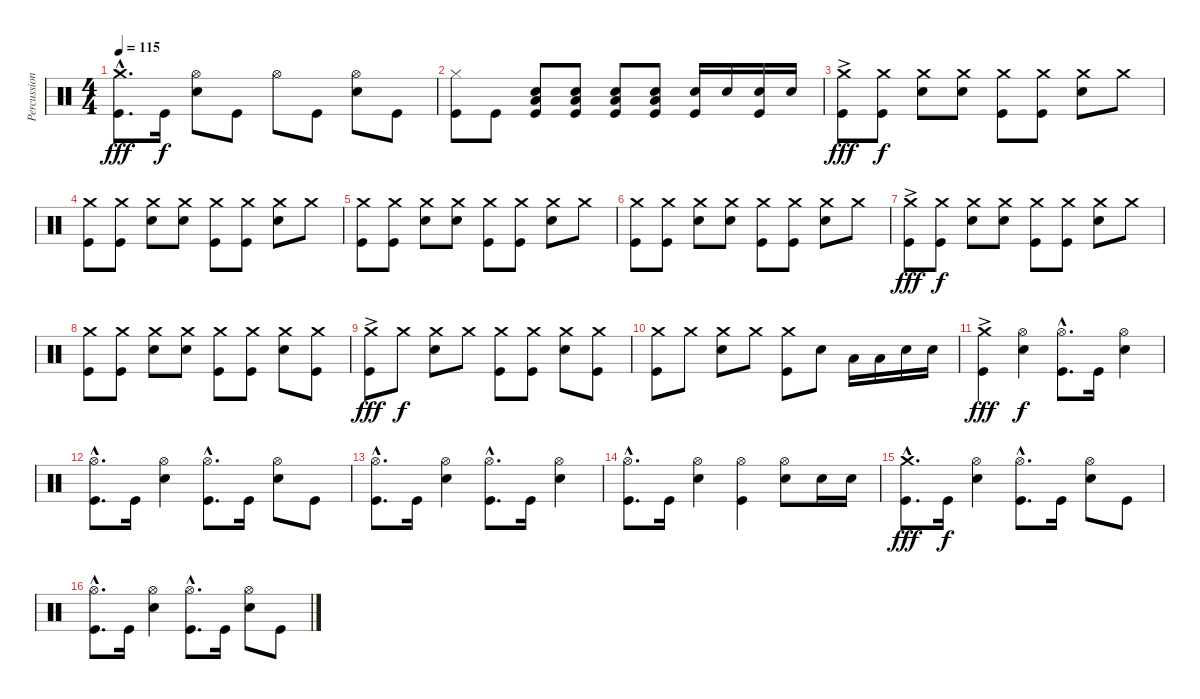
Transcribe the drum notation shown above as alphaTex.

\track ("Percussion" "Percussion") {instrument percussion}
\staff {score}
\articulation defaults
\ts (4 4)
\tempo 115
\clef neutral
\ks c
("Crash medium (hit)"{hac} "Kick (hit)"{hac}).8{d dy fff} "Kick (hit)".16{dy f} ("Hi-Hat (open)" "Snare (hit) 2").8 "Kick (hit)".8 "Hi-Hat (open)".8 "Kick (hit)".8 ("Hi-Hat (open)" "Snare (hit) 2").8 "Kick (hit)".8 |
("Hi-Hat (closed)" "Kick (hit)").8 "Kick (hit)".8 ("Snare (hit) 2" "Low Floor Tom (hit)" "Kick (hit)").8{volume 16} ("Snare (hit) 2" "Low Floor Tom (hit)" "Kick (hit)").8 ("Snare (hit) 2" "Low Floor Tom (hit)" "Kick (hit)").8 ("Snare (hit) 2" "Low Floor Tom (hit)" "Kick (hit)").8 ("Snare (hit) 2" "Kick (hit)").16 "Snare (hit) 2".16 ("Snare (hit) 2" "Kick (hit)").16 "Snare (hit) 2".16 |
("Crash medium (hit)"{ac} "Kick (hit)").8{dy fff volume 13} ("Crash medium (hit)" "Kick (hit)").8{dy f} ("Crash medium (hit)" "Snare (hit) 2").8 ("Crash medium (hit)" "Snare (hit) 2").8 ("Crash medium (hit)" "Kick (hit)").8 ("Crash medium (hit)" "Kick (hit)").8 ("Crash medium (hit)" "Snare (hit) 2").8 "Crash medium (hit)".8 |
("Crash medium (hit)" "Kick (hit)").8 ("Crash medium (hit)" "Kick (hit)").8 ("Crash medium (hit)" "Snare (hit) 2").8 ("Crash medium (hit)" "Snare (hit) 2").8 ("Crash medium (hit)" "Kick (hit)").8 ("Crash medium (hit)" "Kick (hit)").8 ("Crash medium (hit)" "Snare (hit) 2").8 "Crash medium (hit)".8 |
("Crash medium (hit)" "Kick (hit)").8 ("Crash medium (hit)" "Kick (hit)").8 ("Crash medium (hit)" "Snare (hit) 2").8 ("Crash medium (hit)" "Snare (hit) 2").8 ("Crash medium (hit)" "Kick (hit)").8 ("Crash medium (hit)" "Kick (hit)").8 ("Crash medium (hit)" "Snare (hit) 2").8 "Crash medium (hit)".8 |
("Crash medium (hit)" "Kick (hit)").8 ("Crash medium (hit)" "Kick (hit)").8 ("Crash medium (hit)" "Snare (hit) 2").8 ("Crash medium (hit)" "Snare (hit) 2").8 ("Crash medium (hit)" "Kick (hit)").8 ("Crash medium (hit)" "Kick (hit)").8 ("Crash medium (hit)" "Snare (hit) 2").8 "Crash medium (hit)".8 |
("Crash medium (hit)"{ac} "Kick (hit)").8{dy fff} ("Crash medium (hit)" "Kick (hit)").8{dy f} ("Crash medium (hit)" "Snare (hit) 2").8 ("Crash medium (hit)" "Snare (hit) 2").8 ("Crash medium (hit)" "Kick (hit)").8 ("Crash medium (hit)" "Kick (hit)").8 ("Crash medium (hit)" "Snare (hit) 2").8 "Crash medium (hit)".8 |
("Crash medium (hit)" "Kick (hit)").8 ("Crash medium (hit)" "Kick (hit)").8 ("Crash medium (hit)" "Snare (hit) 2").8 ("Crash medium (hit)" "Snare (hit) 2").8 ("Crash medium (hit)" "Kick (hit)").8 ("Crash medium (hit)" "Kick (hit)").8 ("Crash medium (hit)" "Snare (hit) 2").8 ("Crash medium (hit)" "Kick (hit)").8 |
("Crash medium (hit)"{ac} "Kick (hit)").8{dy fff} "Crash medium (hit)".8{dy f} ("Crash medium (hit)" "Snare (hit) 2").8 "Crash medium (hit)".8 ("Crash medium (hit)" "Kick (hit)").8 ("Crash medium (hit)" "Kick (hit)").8 ("Crash medium (hit)" "Snare (hit) 2").8 ("Crash medium (hit)" "Kick (hit)").8 |
("Crash medium (hit)" "Kick (hit)").8 "Crash medium (hit)".8 ("Crash medium (hit)" "Snare (hit) 2").8 "Crash medium (hit)".8 ("Crash medium (hit)" "Kick (hit)").8 "Snare (hit) 2".8 "Low Tom (hit)".16 "Low Tom (hit)".16 "Snare (hit) 2".16 "Snare (hit) 2".16 |
("Crash medium (hit)"{ac} "Kick (hit)").4{dy fff} ("Hi-Hat (open)" "Snare (hit) 2").4{dy f} ("Hi-Hat (open)"{hac} "Kick (hit)"{hac}).8{d} "Kick (hit)".16 ("Hi-Hat (open)" "Snare (hit) 2").4 |
("Hi-Hat (open)"{hac} "Kick (hit)"{hac}).8{d} "Kick (hit)".16 ("Hi-Hat (open)" "Snare (hit) 2").4 ("Hi-Hat (open)"{hac} "Kick (hit)"{hac}).8{d} "Kick (hit)".16 ("Hi-Hat (open)" "Snare (hit) 2").8 "Kick (hit)".8 |
("Hi-Hat (open)"{hac} "Kick (hit)"{hac}).8{d} "Kick (hit)".16 ("Hi-Hat (open)" "Snare (hit) 2").4 ("Hi-Hat (open)"{hac} "Kick (hit)"{hac}).8{d} "Kick (hit)".16 ("Hi-Hat (open)" "Snare (hit) 2").4 |
("Hi-Hat (open)"{hac} "Kick (hit)"{hac}).8{d} "Kick (hit)".16 ("Hi-Hat (open)" "Snare (hit) 2").4 ("Hi-Hat (open)" "Kick (hit)").4 ("Hi-Hat (open)" "Snare (hit) 2").8 "Snare (hit) 2".16 "Snare (hit) 2".16 |
("Crash medium (hit)"{hac} "Kick (hit)"{hac}).8{d dy fff} "Kick (hit)".16{dy f} ("Hi-Hat (open)" "Snare (hit) 2").4 ("Hi-Hat (open)"{hac} "Kick (hit)"{hac}).8{d} "Kick (hit)".16 ("Hi-Hat (open)" "Snare (hit) 2").8 "Kick (hit)".8 |
("Hi-Hat (open)"{hac} "Kick (hit)"{hac}).8{d} "Kick (hit)".16 ("Hi-Hat (open)" "Snare (hit) 2").4 ("Hi-Hat (open)"{hac} "Kick (hit)"{hac}).8{d} "Kick (hit)".16 ("Hi-Hat (open)" "Snare (hit) 2").8 "Kick (hit)".8
